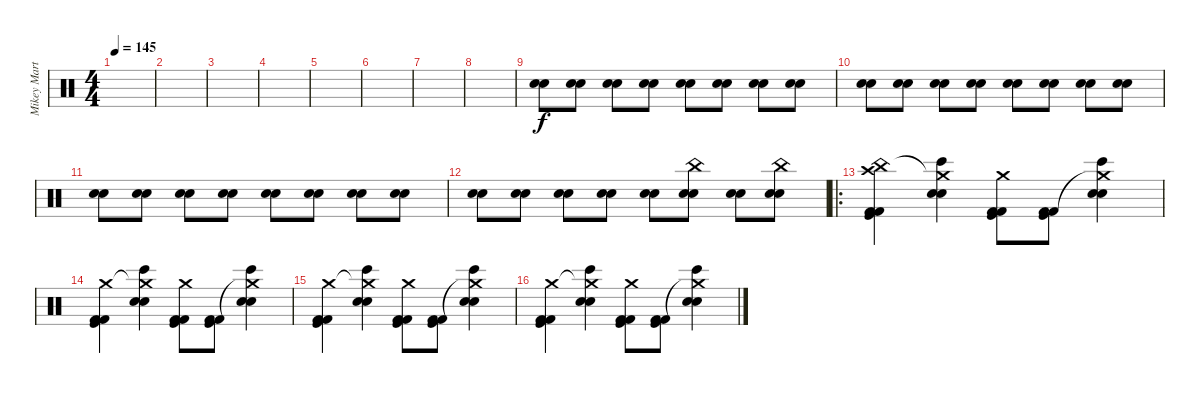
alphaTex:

\track ("Mikey Martin" "Mikey Mart") {instrument percussion}
\staff {score}
\articulation defaults
\ts (4 4)
\tempo 145
\clef neutral
\ks c
|
|
|
|
|
|
|
|
("Snare (hit) 2" "Electric Snare (hit)").8{volume 16} ("Snare (hit) 2" "Electric Snare (hit)").8 ("Snare (hit) 2" "Electric Snare (hit)").8 ("Snare (hit) 2" "Electric Snare (hit)").8 ("Snare (hit) 2" "Electric Snare (hit)").8 ("Snare (hit) 2" "Electric Snare (hit)").8 ("Snare (hit) 2" "Electric Snare (hit)").8 ("Snare (hit) 2" "Electric Snare (hit)").8 |
("Snare (hit) 2" "Electric Snare (hit)").8 ("Snare (hit) 2" "Electric Snare (hit)").8 ("Snare (hit) 2" "Electric Snare (hit)").8 ("Snare (hit) 2" "Electric Snare (hit)").8 ("Snare (hit) 2" "Electric Snare (hit)").8 ("Snare (hit) 2" "Electric Snare (hit)").8 ("Snare (hit) 2" "Electric Snare (hit)").8 ("Snare (hit) 2" "Electric Snare (hit)").8 |
("Snare (hit) 2" "Electric Snare (hit)").8 ("Snare (hit) 2" "Electric Snare (hit)").8 ("Snare (hit) 2" "Electric Snare (hit)").8 ("Snare (hit) 2" "Electric Snare (hit)").8 ("Snare (hit) 2" "Electric Snare (hit)").8 ("Snare (hit) 2" "Electric Snare (hit)").8 ("Snare (hit) 2" "Electric Snare (hit)").8 ("Snare (hit) 2" "Electric Snare (hit)").8 |
("Snare (hit) 2" "Electric Snare (hit)").8 ("Snare (hit) 2" "Electric Snare (hit)").8 ("Snare (hit) 2" "Electric Snare (hit)").8 ("Snare (hit) 2" "Electric Snare (hit)").8 ("Snare (hit) 2" "Electric Snare (hit)").8 ("China (hit)" "Snare (hit) 2" "Electric Snare (hit)").8 ("Snare (hit) 2" "Electric Snare (hit)").8 ("China (hit)" "Snare (hit) 2" "Electric Snare (hit)").8 |
\ro
("China (hit)" "Crash high (hit)" "Kick (hit)" "Kick (hit) 2" "Kick (hit) 2").4 ("Crash medium (hit)"{t} "Bongo High (hit)" "Snare (hit) 2" "Electric Snare (hit)").4 ("Crash medium (hit)" "Kick (hit)" "Kick (hit) 2" "Kick (hit) 2").8 ("Kick (hit)" "Kick (hit) 2" "Kick (hit) 2").8 ("Crash medium (hit)"{t} "Bongo High (hit)" "Snare (hit) 2" "Electric Snare (hit)").4 |
("Crash medium (hit)" "Kick (hit)" "Kick (hit) 2" "Kick (hit) 2").4 ("Crash medium (hit)"{t} "Bongo High (hit)" "Snare (hit) 2" "Electric Snare (hit)").4 ("Crash medium (hit)" "Kick (hit)" "Kick (hit) 2" "Kick (hit) 2").8 ("Kick (hit)" "Kick (hit) 2" "Kick (hit) 2").8 ("Crash medium (hit)"{t} "Bongo High (hit)" "Snare (hit) 2" "Electric Snare (hit)").4 |
("Crash medium (hit)" "Kick (hit)" "Kick (hit) 2" "Kick (hit) 2").4 ("Crash medium (hit)"{t} "Bongo High (hit)" "Snare (hit) 2" "Electric Snare (hit)").4 ("Crash medium (hit)" "Kick (hit)" "Kick (hit) 2" "Kick (hit) 2").8 ("Kick (hit)" "Kick (hit) 2" "Kick (hit) 2").8 ("Crash medium (hit)"{t} "Bongo High (hit)" "Snare (hit) 2" "Electric Snare (hit)").4 |
("Crash medium (hit)" "Kick (hit)" "Kick (hit) 2" "Kick (hit) 2").4 ("Crash medium (hit)"{t} "Bongo High (hit)" "Snare (hit) 2" "Electric Snare (hit)").4 ("Crash medium (hit)" "Kick (hit)" "Kick (hit) 2" "Kick (hit) 2").8 ("Kick (hit)" "Kick (hit) 2" "Kick (hit) 2").8 ("Crash medium (hit)"{t} "Bongo High (hit)" "Snare (hit) 2" "Electric Snare (hit)").4
